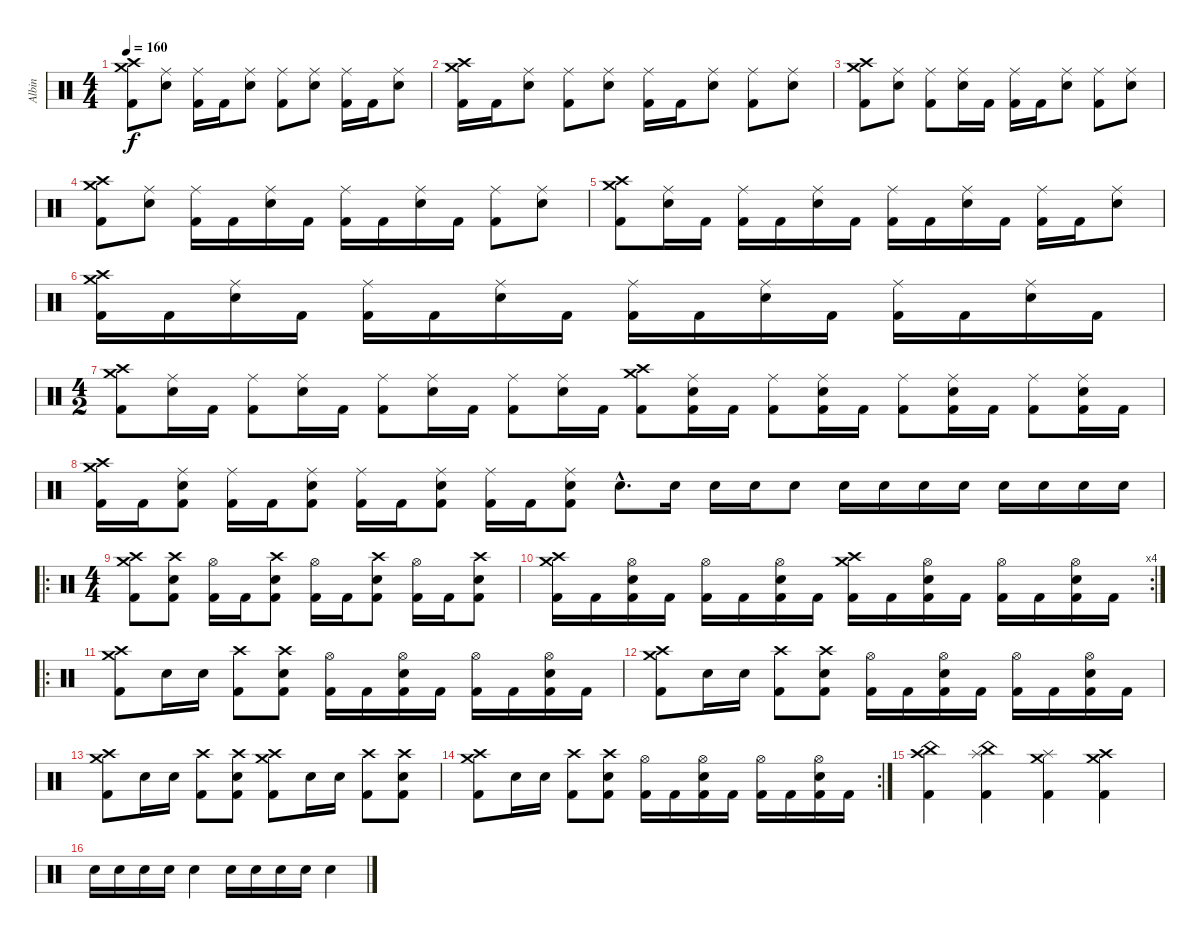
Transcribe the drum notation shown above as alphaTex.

\track ("Albin" "Albin") {instrument percussion}
\staff {score}
\articulation defaults
\ts (4 4)
\tempo 160
\clef neutral
\ks c
("Kick (hit) 2" "Crash high (hit)" "Crash medium (hit)").8{dy f} ("Electric Snare (hit)" "Ride (middle)").8 ("Kick (hit) 2" "Ride (middle)").16 "Kick (hit) 2".16 ("Electric Snare (hit)" "Ride (middle)").8 ("Kick (hit) 2" "Ride (middle)").8 ("Electric Snare (hit)" "Ride (middle)").8 ("Kick (hit) 2" "Ride (middle)").16 "Kick (hit) 2".16 ("Electric Snare (hit)" "Ride (middle)").8 |
("Kick (hit) 2" "Crash medium (hit)" "Crash high (hit)").16 "Kick (hit) 2".16 ("Electric Snare (hit)" "Ride (middle)").8 ("Kick (hit) 2" "Ride (middle)").8 ("Electric Snare (hit)" "Ride (middle)").8 ("Kick (hit) 2" "Ride (middle)").16 "Kick (hit) 2".16 ("Electric Snare (hit)" "Ride (middle)").8 ("Kick (hit) 2" "Ride (middle)").8 ("Electric Snare (hit)" "Ride (middle)").8 |
("Kick (hit) 2" "Crash high (hit)" "Crash medium (hit)").8 ("Electric Snare (hit)" "Ride (middle)").8 ("Kick (hit) 2" "Ride (middle)").8 ("Electric Snare (hit)" "Ride (middle)").16 "Kick (hit) 2".16 ("Kick (hit) 2" "Ride (middle)").16 "Kick (hit) 2".16 ("Electric Snare (hit)" "Ride (middle)").8 ("Kick (hit) 2" "Ride (middle)").8 ("Electric Snare (hit)" "Ride (middle)").8 |
("Kick (hit) 2" "Crash medium (hit)" "Crash high (hit)").8 ("Electric Snare (hit)" "Ride (middle)").8 ("Kick (hit) 2" "Ride (middle)").16 "Kick (hit) 2".16 ("Electric Snare (hit)" "Ride (middle)").16 "Kick (hit) 2".16 ("Kick (hit) 2" "Ride (middle)").16 "Kick (hit) 2".16 ("Electric Snare (hit)" "Ride (middle)").16 "Kick (hit) 2".16 ("Kick (hit) 2" "Ride (middle)").8 ("Electric Snare (hit)" "Ride (middle)").8 |
("Kick (hit) 2" "Crash high (hit)" "Crash medium (hit)").8 ("Electric Snare (hit)" "Ride (middle)").16 "Kick (hit) 2".16 ("Kick (hit) 2" "Ride (middle)").16 "Kick (hit) 2".16 ("Electric Snare (hit)" "Ride (middle)").16 "Kick (hit) 2".16 ("Kick (hit) 2" "Ride (middle)").16 "Kick (hit) 2".16 ("Electric Snare (hit)" "Ride (middle)").16 "Kick (hit) 2".16 ("Kick (hit) 2" "Ride (middle)").16 "Kick (hit) 2".16 ("Electric Snare (hit)" "Ride (middle)").8 |
("Kick (hit) 2" "Crash medium (hit)" "Crash high (hit)").16 "Kick (hit) 2".16 ("Electric Snare (hit)" "Ride (middle)").16 "Kick (hit) 2".16 ("Kick (hit) 2" "Ride (middle)").16 "Kick (hit) 2".16 ("Electric Snare (hit)" "Ride (middle)").16 "Kick (hit) 2".16 ("Kick (hit) 2" "Ride (middle)").16 "Kick (hit) 2".16 ("Electric Snare (hit)" "Ride (middle)").16 "Kick (hit) 2".16 ("Kick (hit) 2" "Ride (middle)").16 "Kick (hit) 2".16 ("Electric Snare (hit)" "Ride (middle)").16 "Kick (hit) 2".16 |
\ts (4 2)
("Kick (hit) 2" "Crash high (hit)" "Crash medium (hit)").8 ("Electric Snare (hit)" "Ride (middle)").16 "Kick (hit) 2".16 ("Kick (hit) 2" "Ride (middle)").8 ("Electric Snare (hit)" "Ride (middle)").16 "Kick (hit) 2".16 ("Kick (hit) 2" "Ride (middle)").8 ("Electric Snare (hit)" "Ride (middle)").16 "Kick (hit) 2".16 ("Kick (hit) 2" "Ride (middle)").8 ("Electric Snare (hit)" "Ride (middle)").16 "Kick (hit) 2".16 ("Kick (hit) 2" "Crash medium (hit)" "Crash high (hit)").8 ("Kick (hit) 2" "Electric Snare (hit)" "Ride (middle)").16 "Kick (hit) 2".16 ("Kick (hit) 2" "Ride (middle)").8 ("Kick (hit) 2" "Electric Snare (hit)" "Ride (middle)").16 "Kick (hit) 2".16 ("Kick (hit) 2" "Ride (middle)").8 ("Kick (hit) 2" "Electric Snare (hit)" "Ride (middle)").16 "Kick (hit) 2".16 ("Kick (hit) 2" "Ride (middle)").8 ("Kick (hit) 2" "Electric Snare (hit)" "Ride (middle)").16 "Kick (hit) 2".16 |
("Kick (hit) 2" "Crash high (hit)" "Crash medium (hit)").16 "Kick (hit) 2".16 ("Kick (hit) 2" "Electric Snare (hit)" "Ride (middle)").8 ("Kick (hit) 2" "Ride (middle)").16 "Kick (hit) 2".16 ("Kick (hit) 2" "Electric Snare (hit)" "Ride (middle)").8 ("Kick (hit) 2" "Ride (middle)").16 "Kick (hit) 2".16 ("Kick (hit) 2" "Electric Snare (hit)" "Ride (middle)").8 ("Kick (hit) 2" "Ride (middle)").16 "Kick (hit) 2".16 ("Kick (hit) 2" "Electric Snare (hit)" "Ride (middle)").8 "Electric Snare (hit)"{hac}.8{d} "Electric Snare (hit)".16 "Electric Snare (hit)".16 "Electric Snare (hit)".16 "Electric Snare (hit)".8 "Electric Snare (hit)".16 "Electric Snare (hit)".16 "Electric Snare (hit)".16 "Electric Snare (hit)".16 "Electric Snare (hit)".16 "Electric Snare (hit)".16 "Electric Snare (hit)".16 "Electric Snare (hit)".16 |
\ro
\ts (4 4)
("Kick (hit) 2" "Crash high (hit)" "Crash medium (hit)").8 ("Kick (hit) 2" "Electric Snare (hit)" "Crash high (hit)").8 ("Kick (hit) 2" "Hi-Hat (open)").16 "Kick (hit) 2".16 ("Kick (hit) 2" "Electric Snare (hit)" "Crash high (hit)").8 ("Kick (hit) 2" "Hi-Hat (open)").16 "Kick (hit) 2".16 ("Kick (hit) 2" "Electric Snare (hit)" "Crash high (hit)").8 ("Kick (hit) 2" "Hi-Hat (open)").16 "Kick (hit) 2".16 ("Kick (hit) 2" "Electric Snare (hit)" "Crash high (hit)").8 |
\rc 4
("Kick (hit) 2" "Crash high (hit)" "Crash medium (hit)").16 "Kick (hit) 2".16 ("Kick (hit) 2" "Electric Snare (hit)" "Hi-Hat (open)").16 "Kick (hit) 2".16 ("Kick (hit) 2" "Hi-Hat (open)").16 "Kick (hit) 2".16 ("Kick (hit) 2" "Electric Snare (hit)" "Hi-Hat (open)").16 "Kick (hit) 2".16 ("Kick (hit) 2" "Crash medium (hit)" "Crash high (hit)").16 "Kick (hit) 2".16 ("Kick (hit) 2" "Electric Snare (hit)" "Hi-Hat (open)").16 "Kick (hit) 2".16 ("Kick (hit) 2" "Hi-Hat (open)").16 "Kick (hit) 2".16 ("Kick (hit) 2" "Electric Snare (hit)" "Hi-Hat (open)").16 "Kick (hit) 2".16 |
\ro
("Kick (hit) 2" "Crash high (hit)" "Crash medium (hit)").8 "Electric Snare (hit)".16 "Electric Snare (hit)".16 ("Kick (hit) 2" "Crash high (hit)").8 ("Kick (hit) 2" "Electric Snare (hit)" "Crash high (hit)").8 ("Kick (hit) 2" "Hi-Hat (open)").16 "Kick (hit) 2".16 ("Kick (hit) 2" "Electric Snare (hit)" "Hi-Hat (open)").16 "Kick (hit) 2".16 ("Kick (hit) 2" "Hi-Hat (open)").16 "Kick (hit) 2".16 ("Kick (hit) 2" "Electric Snare (hit)" "Hi-Hat (open)").16 "Kick (hit) 2".16 |
("Kick (hit) 2" "Crash medium (hit)" "Crash high (hit)").8 "Electric Snare (hit)".16 "Electric Snare (hit)".16 ("Kick (hit) 2" "Crash high (hit)").8 ("Kick (hit) 2" "Electric Snare (hit)" "Crash high (hit)").8 ("Kick (hit) 2" "Hi-Hat (open)").16 "Kick (hit) 2".16 ("Kick (hit) 2" "Electric Snare (hit)" "Hi-Hat (open)").16 "Kick (hit) 2".16 ("Kick (hit) 2" "Hi-Hat (open)").16 "Kick (hit) 2".16 ("Kick (hit) 2" "Electric Snare (hit)" "Hi-Hat (open)").16 "Kick (hit) 2".16 |
("Kick (hit) 2" "Crash high (hit)" "Crash medium (hit)").8 "Electric Snare (hit)".16 "Electric Snare (hit)".16 ("Kick (hit) 2" "Crash high (hit)").8 ("Kick (hit) 2" "Electric Snare (hit)" "Crash high (hit)").8 ("Kick (hit) 2" "Crash medium (hit)" "Crash high (hit)").8 "Electric Snare (hit)".16 "Electric Snare (hit)".16 ("Kick (hit) 2" "Crash high (hit)").8 ("Kick (hit) 2" "Electric Snare (hit)" "Crash high (hit)").8 |
\rc 2
("Kick (hit) 2" "Crash high (hit)" "Crash medium (hit)").8 "Electric Snare (hit)".16 "Electric Snare (hit)".16 ("Kick (hit) 2" "Crash high (hit)").8 ("Kick (hit) 2" "Electric Snare (hit)" "Crash high (hit)").8 ("Kick (hit) 2" "Hi-Hat (open)").16 "Kick (hit) 2".16 ("Kick (hit) 2" "Electric Snare (hit)" "Hi-Hat (open)").16 "Kick (hit) 2".16 ("Kick (hit) 2" "Hi-Hat (open)").16 "Kick (hit) 2".16 ("Kick (hit) 2" "Electric Snare (hit)" "Hi-Hat (open)").16 "Kick (hit) 2".16 |
("Kick (hit) 2" "Crash high (hit)" "China (hit)").4 ("Kick (hit) 2" "China (hit)" "Splash (hit)").4 ("Kick (hit) 2" "Splash (hit)" "Crash medium (hit)").4 ("Kick (hit) 2" "Crash medium (hit)" "Crash high (hit)").4 |
"Electric Snare (hit)".16 "Electric Snare (hit)".16 "Electric Snare (hit)".16 "Electric Snare (hit)".16 "Electric Snare (hit)".4 "Electric Snare (hit)".16 "Electric Snare (hit)".16 "Electric Snare (hit)".16 "Electric Snare (hit)".16 "Electric Snare (hit)".4
